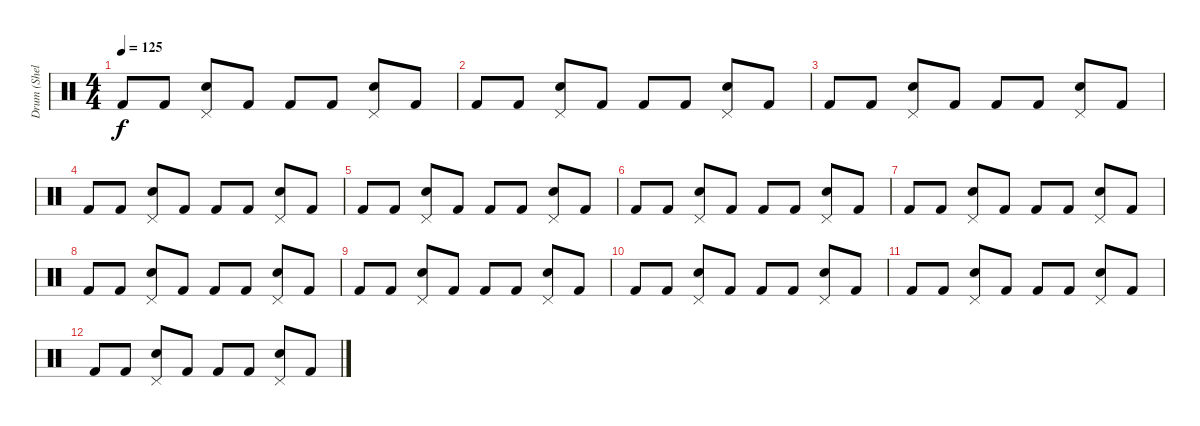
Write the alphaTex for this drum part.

\track ("Drum (Shelley)" "Drum (Shel") {instrument percussion}
\staff {score}
\articulation defaults
\ts (4 4)
\tempo 125
\clef neutral
\ks c "Kick (hit) 2".8{dy f} "Kick (hit) 2".8
("Pedal Hi-Hat (hit)" "Electric Snare (hit)").8 "Kick (hit) 2".8 "Kick (hit) 2".8 "Kick (hit) 2".8 ("Pedal Hi-Hat (hit)" "Electric Snare (hit)").8 "Kick (hit) 2".8 |
"Kick (hit) 2".8 "Kick (hit) 2".8 ("Pedal Hi-Hat (hit)" "Electric Snare (hit)").8 "Kick (hit) 2".8 "Kick (hit) 2".8 "Kick (hit) 2".8 ("Pedal Hi-Hat (hit)" "Electric Snare (hit)").8 "Kick (hit) 2".8 |
"Kick (hit) 2".8 "Kick (hit) 2".8 ("Pedal Hi-Hat (hit)" "Electric Snare (hit)").8 "Kick (hit) 2".8 "Kick (hit) 2".8 "Kick (hit) 2".8 ("Pedal Hi-Hat (hit)" "Electric Snare (hit)").8 "Kick (hit) 2".8 |
"Kick (hit) 2".8 "Kick (hit) 2".8 ("Pedal Hi-Hat (hit)" "Electric Snare (hit)").8 "Kick (hit) 2".8 "Kick (hit) 2".8 "Kick (hit) 2".8 ("Pedal Hi-Hat (hit)" "Electric Snare (hit)").8 "Kick (hit) 2".8 |
"Kick (hit) 2".8{volume 8} "Kick (hit) 2".8 ("Pedal Hi-Hat (hit)" "Electric Snare (hit)").8 "Kick (hit) 2".8 "Kick (hit) 2".8 "Kick (hit) 2".8 ("Pedal Hi-Hat (hit)" "Electric Snare (hit)").8 "Kick (hit) 2".8 |
"Kick (hit) 2".8 "Kick (hit) 2".8 ("Pedal Hi-Hat (hit)" "Electric Snare (hit)").8 "Kick (hit) 2".8 "Kick (hit) 2".8 "Kick (hit) 2".8 ("Pedal Hi-Hat (hit)" "Electric Snare (hit)").8 "Kick (hit) 2".8 |
"Kick (hit) 2".8{volume 4} "Kick (hit) 2".8 ("Pedal Hi-Hat (hit)" "Electric Snare (hit)").8 "Kick (hit) 2".8 "Kick (hit) 2".8 "Kick (hit) 2".8 ("Pedal Hi-Hat (hit)" "Electric Snare (hit)").8 "Kick (hit) 2".8 |
"Kick (hit) 2".8 "Kick (hit) 2".8 ("Pedal Hi-Hat (hit)" "Electric Snare (hit)").8 "Kick (hit) 2".8 "Kick (hit) 2".8 "Kick (hit) 2".8 ("Pedal Hi-Hat (hit)" "Electric Snare (hit)").8 "Kick (hit) 2".8 |
"Kick (hit) 2".8{volume 3} "Kick (hit) 2".8 ("Pedal Hi-Hat (hit)" "Electric Snare (hit)").8 "Kick (hit) 2".8 "Kick (hit) 2".8 "Kick (hit) 2".8 ("Pedal Hi-Hat (hit)" "Electric Snare (hit)").8 "Kick (hit) 2".8 |
"Kick (hit) 2".8 "Kick (hit) 2".8 ("Pedal Hi-Hat (hit)" "Electric Snare (hit)").8 "Kick (hit) 2".8 "Kick (hit) 2".8 "Kick (hit) 2".8 ("Pedal Hi-Hat (hit)" "Electric Snare (hit)").8 "Kick (hit) 2".8 |
"Kick (hit) 2".8{volume 0} "Kick (hit) 2".8 ("Pedal Hi-Hat (hit)" "Electric Snare (hit)").8 "Kick (hit) 2".8 "Kick (hit) 2".8 "Kick (hit) 2".8 ("Pedal Hi-Hat (hit)" "Electric Snare (hit)").8 "Kick (hit) 2".8 |
"Kick (hit) 2".8 "Kick (hit) 2".8 ("Pedal Hi-Hat (hit)" "Electric Snare (hit)").8 "Kick (hit) 2".8 "Kick (hit) 2".8 "Kick (hit) 2".8 ("Pedal Hi-Hat (hit)" "Electric Snare (hit)").8 "Kick (hit) 2".8
